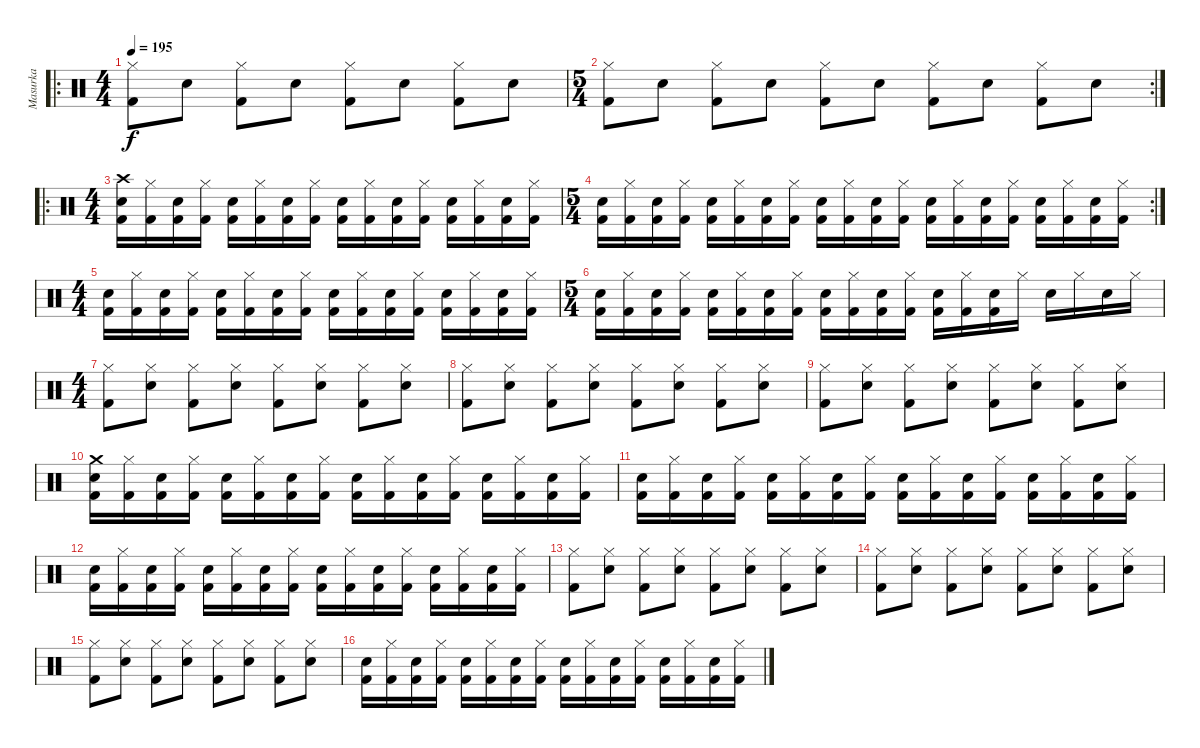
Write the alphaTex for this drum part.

\track ("Masurka" "Masurka") {instrument percussion}
\staff {score}
\articulation defaults
\ro
\ts (4 4)
\tempo 195
\clef neutral
\ks c
("Hi-Hat (closed)" "Kick (hit) 2").8{dy f} "Snare (hit) 2".8 ("Hi-Hat (closed)" "Kick (hit) 2").8 "Snare (hit) 2".8 ("Hi-Hat (closed)" "Kick (hit) 2").8 "Snare (hit) 2".8 ("Hi-Hat (closed)" "Kick (hit) 2").8 "Snare (hit) 2".8 |
\rc 2
\ts (5 4)
("Hi-Hat (closed)" "Kick (hit) 2").8 "Snare (hit) 2".8 ("Hi-Hat (closed)" "Kick (hit) 2").8 "Snare (hit) 2".8 ("Hi-Hat (closed)" "Kick (hit) 2").8 "Snare (hit) 2".8 ("Hi-Hat (closed)" "Kick (hit) 2").8 "Snare (hit) 2".8 ("Hi-Hat (closed)" "Kick (hit) 2").8 "Snare (hit) 2".8 |
\ro
\ts (4 4)
("Crash high (hit)" "Kick (hit) 2" "Snare (hit) 2").16 ("Hi-Hat (closed)" "Kick (hit) 2").16 ("Kick (hit) 2" "Snare (hit) 2").16 ("Hi-Hat (closed)" "Kick (hit) 2").16 ("Kick (hit) 2" "Snare (hit) 2").16 ("Hi-Hat (closed)" "Kick (hit) 2").16 ("Kick (hit) 2" "Snare (hit) 2").16 ("Hi-Hat (closed)" "Kick (hit) 2").16 ("Kick (hit) 2" "Snare (hit) 2").16 ("Hi-Hat (closed)" "Kick (hit) 2").16 ("Kick (hit) 2" "Snare (hit) 2").16 ("Hi-Hat (closed)" "Kick (hit) 2").16 ("Kick (hit) 2" "Snare (hit) 2").16 ("Hi-Hat (closed)" "Kick (hit) 2").16 ("Kick (hit) 2" "Snare (hit) 2").16 ("Hi-Hat (closed)" "Kick (hit) 2").16 |
\rc 2
\ts (5 4)
("Kick (hit) 2" "Snare (hit) 2").16 ("Hi-Hat (closed)" "Kick (hit) 2").16 ("Kick (hit) 2" "Snare (hit) 2").16 ("Hi-Hat (closed)" "Kick (hit) 2").16 ("Kick (hit) 2" "Snare (hit) 2").16 ("Hi-Hat (closed)" "Kick (hit) 2").16 ("Kick (hit) 2" "Snare (hit) 2").16 ("Hi-Hat (closed)" "Kick (hit) 2").16 ("Kick (hit) 2" "Snare (hit) 2").16 ("Hi-Hat (closed)" "Kick (hit) 2").16 ("Kick (hit) 2" "Snare (hit) 2").16 ("Hi-Hat (closed)" "Kick (hit) 2").16 ("Kick (hit) 2" "Snare (hit) 2").16 ("Hi-Hat (closed)" "Kick (hit) 2").16 ("Kick (hit) 2" "Snare (hit) 2").16 ("Hi-Hat (closed)" "Kick (hit) 2").16 ("Kick (hit) 2" "Snare (hit) 2").16 ("Hi-Hat (closed)" "Kick (hit) 2").16 ("Kick (hit) 2" "Snare (hit) 2").16 ("Hi-Hat (closed)" "Kick (hit) 2").16 |
\ts (4 4)
("Kick (hit) 2" "Snare (hit) 2").16 ("Hi-Hat (closed)" "Kick (hit) 2").16 ("Kick (hit) 2" "Snare (hit) 2").16 ("Hi-Hat (closed)" "Kick (hit) 2").16 ("Kick (hit) 2" "Snare (hit) 2").16 ("Hi-Hat (closed)" "Kick (hit) 2").16 ("Kick (hit) 2" "Snare (hit) 2").16 ("Hi-Hat (closed)" "Kick (hit) 2").16 ("Kick (hit) 2" "Snare (hit) 2").16 ("Hi-Hat (closed)" "Kick (hit) 2").16 ("Kick (hit) 2" "Snare (hit) 2").16 ("Hi-Hat (closed)" "Kick (hit) 2").16 ("Kick (hit) 2" "Snare (hit) 2").16 ("Hi-Hat (closed)" "Kick (hit) 2").16 ("Kick (hit) 2" "Snare (hit) 2").16 ("Hi-Hat (closed)" "Kick (hit) 2").16 |
\ts (5 4)
("Kick (hit) 2" "Snare (hit) 2").16 ("Hi-Hat (closed)" "Kick (hit) 2").16 ("Kick (hit) 2" "Snare (hit) 2").16 ("Hi-Hat (closed)" "Kick (hit) 2").16 ("Kick (hit) 2" "Snare (hit) 2").16 ("Hi-Hat (closed)" "Kick (hit) 2").16 ("Kick (hit) 2" "Snare (hit) 2").16 ("Hi-Hat (closed)" "Kick (hit) 2").16 ("Kick (hit) 2" "Snare (hit) 2").16 ("Hi-Hat (closed)" "Kick (hit) 2").16 ("Kick (hit) 2" "Snare (hit) 2").16 ("Hi-Hat (closed)" "Kick (hit) 2").16 ("Kick (hit) 2" "Snare (hit) 2").16 ("Hi-Hat (closed)" "Kick (hit) 2").16 ("Kick (hit) 2" "Snare (hit) 2").16 "Hi-Hat (closed)".16 "Snare (hit) 2".16 "Hi-Hat (closed)".16 "Snare (hit) 2".16 "Hi-Hat (closed)".16 |
\ts (4 4)
("Hi-Hat (closed)" "Kick (hit) 2").8 ("Hi-Hat (closed)" "Snare (hit) 2").8 ("Hi-Hat (closed)" "Kick (hit) 2").8 ("Hi-Hat (closed)" "Snare (hit) 2").8 ("Hi-Hat (closed)" "Kick (hit) 2").8 ("Hi-Hat (closed)" "Snare (hit) 2").8 ("Hi-Hat (closed)" "Kick (hit) 2").8 ("Hi-Hat (closed)" "Snare (hit) 2").8 |
("Hi-Hat (closed)" "Kick (hit) 2").8 ("Hi-Hat (closed)" "Snare (hit) 2").8 ("Hi-Hat (closed)" "Kick (hit) 2").8 ("Hi-Hat (closed)" "Snare (hit) 2").8 ("Hi-Hat (closed)" "Kick (hit) 2").8 ("Hi-Hat (closed)" "Snare (hit) 2").8 ("Hi-Hat (closed)" "Kick (hit) 2").8 ("Hi-Hat (closed)" "Snare (hit) 2").8 |
("Hi-Hat (closed)" "Kick (hit) 2").8 ("Hi-Hat (closed)" "Snare (hit) 2").8 ("Hi-Hat (closed)" "Kick (hit) 2").8 ("Hi-Hat (closed)" "Snare (hit) 2").8 ("Hi-Hat (closed)" "Kick (hit) 2").8 ("Hi-Hat (closed)" "Snare (hit) 2").8 ("Hi-Hat (closed)" "Kick (hit) 2").8 ("Hi-Hat (closed)" "Snare (hit) 2").8 |
("Crash medium (hit)" "Kick (hit) 2" "Snare (hit) 2").16 ("Hi-Hat (closed)" "Kick (hit) 2").16 ("Kick (hit) 2" "Snare (hit) 2").16 ("Hi-Hat (closed)" "Kick (hit) 2").16 ("Kick (hit) 2" "Snare (hit) 2").16 ("Hi-Hat (closed)" "Kick (hit) 2").16 ("Kick (hit) 2" "Snare (hit) 2").16 ("Hi-Hat (closed)" "Kick (hit) 2").16 ("Kick (hit) 2" "Snare (hit) 2").16 ("Hi-Hat (closed)" "Kick (hit) 2").16 ("Kick (hit) 2" "Snare (hit) 2").16 ("Hi-Hat (closed)" "Kick (hit) 2").16 ("Kick (hit) 2" "Snare (hit) 2").16 ("Hi-Hat (closed)" "Kick (hit) 2").16 ("Kick (hit) 2" "Snare (hit) 2").16 ("Hi-Hat (closed)" "Kick (hit) 2").16 |
("Kick (hit) 2" "Snare (hit) 2").16 ("Hi-Hat (closed)" "Kick (hit) 2").16 ("Kick (hit) 2" "Snare (hit) 2").16 ("Hi-Hat (closed)" "Kick (hit) 2").16 ("Kick (hit) 2" "Snare (hit) 2").16 ("Hi-Hat (closed)" "Kick (hit) 2").16 ("Kick (hit) 2" "Snare (hit) 2").16 ("Hi-Hat (closed)" "Kick (hit) 2").16 ("Kick (hit) 2" "Snare (hit) 2").16 ("Hi-Hat (closed)" "Kick (hit) 2").16 ("Kick (hit) 2" "Snare (hit) 2").16 ("Hi-Hat (closed)" "Kick (hit) 2").16 ("Kick (hit) 2" "Snare (hit) 2").16 ("Hi-Hat (closed)" "Kick (hit) 2").16 ("Kick (hit) 2" "Snare (hit) 2").16 ("Hi-Hat (closed)" "Kick (hit) 2").16 |
("Kick (hit) 2" "Snare (hit) 2").16 ("Hi-Hat (closed)" "Kick (hit) 2").16 ("Kick (hit) 2" "Snare (hit) 2").16 ("Hi-Hat (closed)" "Kick (hit) 2").16 ("Kick (hit) 2" "Snare (hit) 2").16 ("Hi-Hat (closed)" "Kick (hit) 2").16 ("Kick (hit) 2" "Snare (hit) 2").16 ("Hi-Hat (closed)" "Kick (hit) 2").16 ("Kick (hit) 2" "Snare (hit) 2").16 ("Hi-Hat (closed)" "Kick (hit) 2").16 ("Kick (hit) 2" "Snare (hit) 2").16 ("Hi-Hat (closed)" "Kick (hit) 2").16 ("Kick (hit) 2" "Snare (hit) 2").16 ("Hi-Hat (closed)" "Kick (hit) 2").16 ("Kick (hit) 2" "Snare (hit) 2").16 ("Hi-Hat (closed)" "Kick (hit) 2").16 |
("Hi-Hat (closed)" "Kick (hit) 2").8 ("Hi-Hat (closed)" "Snare (hit) 2").8 ("Hi-Hat (closed)" "Kick (hit) 2").8 ("Hi-Hat (closed)" "Snare (hit) 2").8 ("Hi-Hat (closed)" "Kick (hit) 2").8 ("Hi-Hat (closed)" "Snare (hit) 2").8 ("Hi-Hat (closed)" "Kick (hit) 2").8 ("Hi-Hat (closed)" "Snare (hit) 2").8 |
("Hi-Hat (closed)" "Kick (hit) 2").8 ("Hi-Hat (closed)" "Snare (hit) 2").8 ("Hi-Hat (closed)" "Kick (hit) 2").8 ("Hi-Hat (closed)" "Snare (hit) 2").8 ("Hi-Hat (closed)" "Kick (hit) 2").8 ("Hi-Hat (closed)" "Snare (hit) 2").8 ("Hi-Hat (closed)" "Kick (hit) 2").8 ("Hi-Hat (closed)" "Snare (hit) 2").8 |
("Hi-Hat (closed)" "Kick (hit) 2").8 ("Hi-Hat (closed)" "Snare (hit) 2").8 ("Hi-Hat (closed)" "Kick (hit) 2").8 ("Hi-Hat (closed)" "Snare (hit) 2").8 ("Hi-Hat (closed)" "Kick (hit) 2").8 ("Hi-Hat (closed)" "Snare (hit) 2").8 ("Hi-Hat (closed)" "Kick (hit) 2").8 ("Hi-Hat (closed)" "Snare (hit) 2").8 |
("Kick (hit) 2" "Snare (hit) 2").16 ("Hi-Hat (closed)" "Kick (hit) 2").16 ("Kick (hit) 2" "Snare (hit) 2").16 ("Hi-Hat (closed)" "Kick (hit) 2").16 ("Kick (hit) 2" "Snare (hit) 2").16 ("Hi-Hat (closed)" "Kick (hit) 2").16 ("Kick (hit) 2" "Snare (hit) 2").16 ("Hi-Hat (closed)" "Kick (hit) 2").16 ("Kick (hit) 2" "Snare (hit) 2").16 ("Hi-Hat (closed)" "Kick (hit) 2").16 ("Kick (hit) 2" "Snare (hit) 2").16 ("Hi-Hat (closed)" "Kick (hit) 2").16 ("Kick (hit) 2" "Snare (hit) 2").16 ("Hi-Hat (closed)" "Kick (hit) 2").16 ("Kick (hit) 2" "Snare (hit) 2").16 ("Hi-Hat (closed)" "Kick (hit) 2").16
